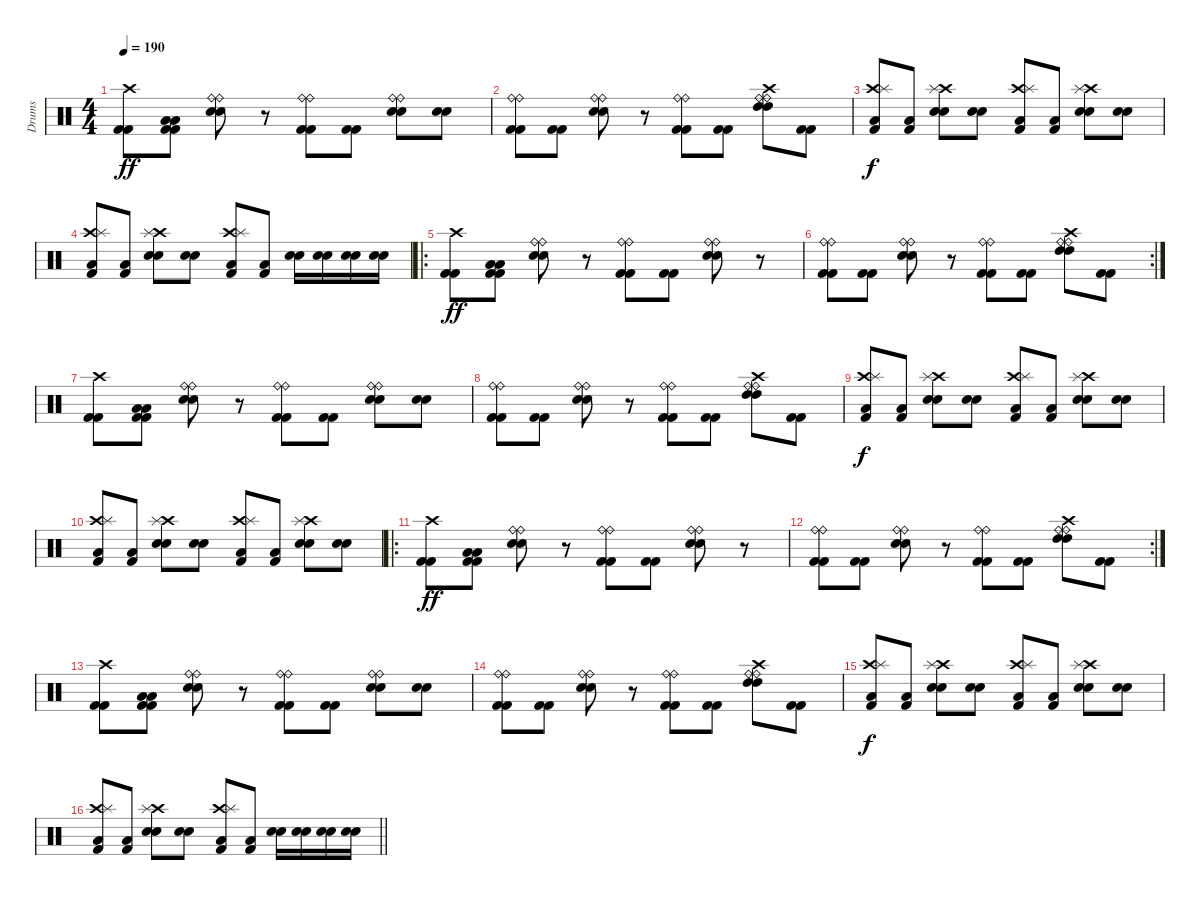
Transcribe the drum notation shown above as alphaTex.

\track ("Drums" "Drums") {instrument percussion}
\staff {score}
\articulation defaults
\ts (4 4)
\tempo 190
\clef neutral
\ks c
("Kick (hit) 2" "Kick (hit) 2" "Crash high (hit)").8{dy ff} ("Kick (hit) 2" "Kick (hit) 2" "Low Tom (hit)" "Low Tom (hit)").8 ("Electric Snare (hit)" "Electric Snare (hit)" "Ride (bell)" "Ride (bell)").8 r.8 ("Kick (hit) 2" "Kick (hit) 2" "Ride (bell)" "Ride (bell)").8 ("Kick (hit) 2" "Kick (hit) 2").8 ("Electric Snare (hit)" "Electric Snare (hit)" "Ride (bell)" "Ride (bell)").8 ("Electric Snare (hit)" "Electric Snare (hit)").8 |
("Kick (hit) 2" "Kick (hit) 2" "Ride (bell)" "Ride (bell)").8 ("Kick (hit) 2" "Kick (hit) 2").8 ("Electric Snare (hit)" "Electric Snare (hit)" "Ride (bell)" "Ride (bell)").8 r.8 ("Kick (hit) 2" "Kick (hit) 2" "Ride (bell)" "Ride (bell)").8 ("Kick (hit) 2" "Kick (hit) 2").8 ("High Tom (hit)" "High Tom (hit)" "Ride (bell)" "Crash high (hit)" "Ride (bell)").8 ("Kick (hit) 2" "Kick (hit) 2").8 |
("Crash high (hit)" "Splash (hit)" "Kick (hit) 2" "Low Floor Tom (hit)").8{dy f} ("Kick (hit) 2" "Low Floor Tom (hit)").8 ("Crash high (hit)" "Splash (hit)" "Electric Snare (hit)" "Electric Snare (hit)").8 ("Electric Snare (hit)" "Electric Snare (hit)").8 ("Crash high (hit)" "Splash (hit)" "Kick (hit) 2" "Low Floor Tom (hit)").8 ("Kick (hit) 2" "Low Floor Tom (hit)").8 ("Crash high (hit)" "Splash (hit)" "Electric Snare (hit)" "Electric Snare (hit)").8 ("Electric Snare (hit)" "Electric Snare (hit)").8 |
("Crash high (hit)" "Splash (hit)" "Kick (hit) 2" "Low Floor Tom (hit)").8 ("Kick (hit) 2" "Low Floor Tom (hit)").8 ("Crash high (hit)" "Splash (hit)" "Electric Snare (hit)" "Electric Snare (hit)").8 ("Electric Snare (hit)" "Electric Snare (hit)").8 ("Crash high (hit)" "Splash (hit)" "Kick (hit) 2" "Low Floor Tom (hit)").8 ("Kick (hit) 2" "Low Floor Tom (hit)").8 ("Snare (hit) 2" "Electric Snare (hit)").16 ("Snare (hit) 2" "Electric Snare (hit)").16 ("Snare (hit) 2" "Electric Snare (hit)").16 ("Snare (hit) 2" "Electric Snare (hit)").16 |
\ro
("Kick (hit) 2" "Kick (hit) 2" "Crash high (hit)").8{dy ff} ("Kick (hit) 2" "Kick (hit) 2" "Low Tom (hit)" "Low Tom (hit)").8 ("Electric Snare (hit)" "Electric Snare (hit)" "Ride (bell)" "Ride (bell)").8 r.8 ("Kick (hit) 2" "Kick (hit) 2" "Ride (bell)" "Ride (bell)").8 ("Kick (hit) 2" "Kick (hit) 2").8 ("Electric Snare (hit)" "Electric Snare (hit)" "Ride (bell)" "Ride (bell)").8 r.8 |
\rc 2
("Kick (hit) 2" "Kick (hit) 2" "Ride (bell)" "Ride (bell)").8 ("Kick (hit) 2" "Kick (hit) 2").8 ("Electric Snare (hit)" "Electric Snare (hit)" "Ride (bell)" "Ride (bell)").8 r.8 ("Kick (hit) 2" "Kick (hit) 2" "Ride (bell)" "Ride (bell)").8 ("Kick (hit) 2" "Kick (hit) 2").8 ("High Tom (hit)" "High Tom (hit)" "Ride (bell)" "Crash high (hit)" "Ride (bell)").8 ("Kick (hit) 2" "Kick (hit) 2").8 |
("Kick (hit) 2" "Kick (hit) 2" "Crash high (hit)").8 ("Kick (hit) 2" "Kick (hit) 2" "Low Tom (hit)" "Low Tom (hit)").8 ("Electric Snare (hit)" "Electric Snare (hit)" "Ride (bell)" "Ride (bell)").8 r.8 ("Kick (hit) 2" "Kick (hit) 2" "Ride (bell)" "Ride (bell)").8 ("Kick (hit) 2" "Kick (hit) 2").8 ("Electric Snare (hit)" "Electric Snare (hit)" "Ride (bell)" "Ride (bell)").8 ("Electric Snare (hit)" "Electric Snare (hit)").8 |
("Kick (hit) 2" "Kick (hit) 2" "Ride (bell)" "Ride (bell)").8 ("Kick (hit) 2" "Kick (hit) 2").8 ("Electric Snare (hit)" "Electric Snare (hit)" "Ride (bell)" "Ride (bell)").8 r.8 ("Kick (hit) 2" "Kick (hit) 2" "Ride (bell)" "Ride (bell)").8 ("Kick (hit) 2" "Kick (hit) 2").8 ("High Tom (hit)" "High Tom (hit)" "Ride (bell)" "Crash high (hit)" "Ride (bell)").8 ("Kick (hit) 2" "Kick (hit) 2").8 |
("Crash high (hit)" "Splash (hit)" "Kick (hit) 2" "Low Floor Tom (hit)").8{dy f} ("Kick (hit) 2" "Low Floor Tom (hit)").8 ("Crash high (hit)" "Splash (hit)" "Electric Snare (hit)" "Electric Snare (hit)").8 ("Electric Snare (hit)" "Electric Snare (hit)").8 ("Crash high (hit)" "Splash (hit)" "Kick (hit) 2" "Low Floor Tom (hit)").8 ("Kick (hit) 2" "Low Floor Tom (hit)").8 ("Crash high (hit)" "Splash (hit)" "Electric Snare (hit)" "Electric Snare (hit)").8 ("Electric Snare (hit)" "Electric Snare (hit)").8 |
("Crash high (hit)" "Splash (hit)" "Kick (hit) 2" "Low Floor Tom (hit)").8 ("Kick (hit) 2" "Low Floor Tom (hit)").8 ("Crash high (hit)" "Splash (hit)" "Electric Snare (hit)" "Electric Snare (hit)").8 ("Electric Snare (hit)" "Electric Snare (hit)").8 ("Crash high (hit)" "Splash (hit)" "Kick (hit) 2" "Low Floor Tom (hit)").8 ("Kick (hit) 2" "Low Floor Tom (hit)").8 ("Crash high (hit)" "Splash (hit)" "Electric Snare (hit)" "Electric Snare (hit)").8 ("Electric Snare (hit)" "Electric Snare (hit)").8 |
\ro
("Kick (hit) 2" "Kick (hit) 2" "Crash high (hit)").8{dy ff} ("Kick (hit) 2" "Kick (hit) 2" "Low Tom (hit)" "Low Tom (hit)").8 ("Electric Snare (hit)" "Electric Snare (hit)" "Ride (bell)" "Ride (bell)").8 r.8 ("Kick (hit) 2" "Kick (hit) 2" "Ride (bell)" "Ride (bell)").8 ("Kick (hit) 2" "Kick (hit) 2").8 ("Electric Snare (hit)" "Electric Snare (hit)" "Ride (bell)" "Ride (bell)").8 r.8 |
\rc 2
("Kick (hit) 2" "Kick (hit) 2" "Ride (bell)" "Ride (bell)").8 ("Kick (hit) 2" "Kick (hit) 2").8 ("Electric Snare (hit)" "Electric Snare (hit)" "Ride (bell)" "Ride (bell)").8 r.8 ("Kick (hit) 2" "Kick (hit) 2" "Ride (bell)" "Ride (bell)").8 ("Kick (hit) 2" "Kick (hit) 2").8 ("High Tom (hit)" "High Tom (hit)" "Ride (bell)" "Crash high (hit)" "Ride (bell)").8 ("Kick (hit) 2" "Kick (hit) 2").8 |
("Kick (hit) 2" "Kick (hit) 2" "Crash high (hit)").8 ("Kick (hit) 2" "Kick (hit) 2" "Low Tom (hit)" "Low Tom (hit)").8 ("Electric Snare (hit)" "Electric Snare (hit)" "Ride (bell)" "Ride (bell)").8 r.8 ("Kick (hit) 2" "Kick (hit) 2" "Ride (bell)" "Ride (bell)").8 ("Kick (hit) 2" "Kick (hit) 2").8 ("Electric Snare (hit)" "Electric Snare (hit)" "Ride (bell)" "Ride (bell)").8 ("Electric Snare (hit)" "Electric Snare (hit)").8 |
("Kick (hit) 2" "Kick (hit) 2" "Ride (bell)" "Ride (bell)").8 ("Kick (hit) 2" "Kick (hit) 2").8 ("Electric Snare (hit)" "Electric Snare (hit)" "Ride (bell)" "Ride (bell)").8 r.8 ("Kick (hit) 2" "Kick (hit) 2" "Ride (bell)" "Ride (bell)").8 ("Kick (hit) 2" "Kick (hit) 2").8 ("High Tom (hit)" "High Tom (hit)" "Ride (bell)" "Crash high (hit)" "Ride (bell)").8 ("Kick (hit) 2" "Kick (hit) 2").8 |
("Crash high (hit)" "Splash (hit)" "Kick (hit) 2" "Low Floor Tom (hit)").8{dy f} ("Kick (hit) 2" "Low Floor Tom (hit)").8 ("Crash high (hit)" "Splash (hit)" "Electric Snare (hit)" "Electric Snare (hit)").8 ("Electric Snare (hit)" "Electric Snare (hit)").8 ("Crash high (hit)" "Splash (hit)" "Kick (hit) 2" "Low Floor Tom (hit)").8 ("Kick (hit) 2" "Low Floor Tom (hit)").8 ("Crash high (hit)" "Splash (hit)" "Electric Snare (hit)" "Electric Snare (hit)").8 ("Electric Snare (hit)" "Electric Snare (hit)").8 |
\barLineRight lightlight
("Crash high (hit)" "Splash (hit)" "Kick (hit) 2" "Low Floor Tom (hit)").8 ("Kick (hit) 2" "Low Floor Tom (hit)").8 ("Crash high (hit)" "Splash (hit)" "Electric Snare (hit)" "Electric Snare (hit)").8 ("Electric Snare (hit)" "Electric Snare (hit)").8 ("Crash high (hit)" "Splash (hit)" "Kick (hit) 2" "Low Floor Tom (hit)").8 ("Kick (hit) 2" "Low Floor Tom (hit)").8 ("Snare (hit) 2" "Electric Snare (hit)").16 ("Snare (hit) 2" "Electric Snare (hit)").16 ("Snare (hit) 2" "Electric Snare (hit)").16 ("Snare (hit) 2" "Electric Snare (hit)").16
